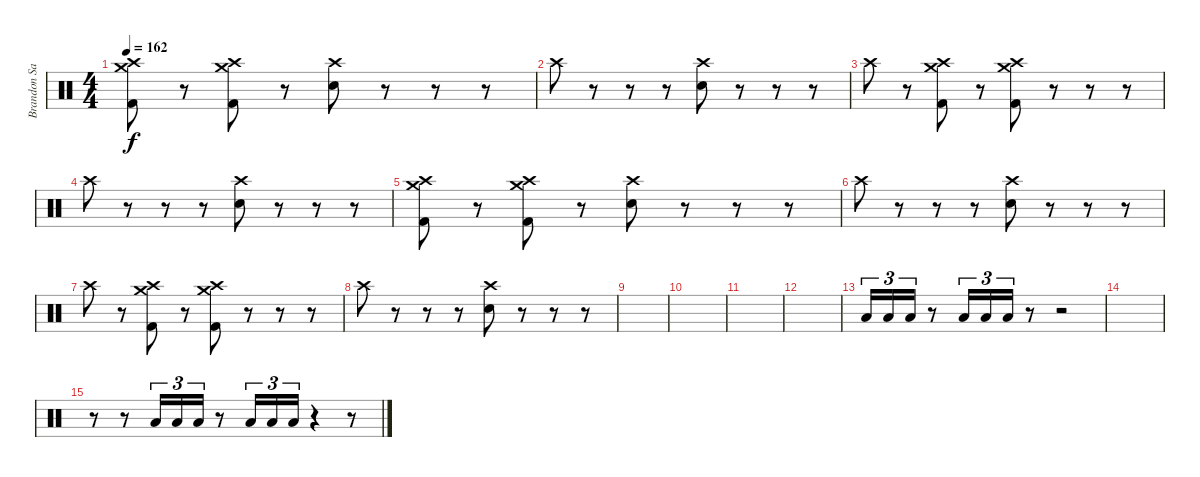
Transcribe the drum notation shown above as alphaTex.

\track ("Brandon Saller" "Brandon Sa") {instrument percussion}
\staff {score}
\articulation defaults
\ts (4 4)
\tempo 162
\clef neutral
\ks c
("Crash high (hit)" "Crash medium (hit)" "Kick (hit) 2").8{dy f} r.8 ("Crash high (hit)" "Crash medium (hit)" "Kick (hit) 2").8 r.8 ("Crash high (hit)" "Electric Snare (hit)").8 r.8 r.8 r.8 |
"Crash high (hit)".8 r.8 r.8 r.8 ("Crash high (hit)" "Electric Snare (hit)").8 r.8 r.8 r.8 |
"Crash high (hit)".8 r.8 ("Crash high (hit)" "Crash medium (hit)" "Kick (hit) 2").8 r.8 ("Crash high (hit)" "Crash medium (hit)" "Kick (hit) 2").8 r.8 r.8 r.8 |
"Crash high (hit)".8 r.8 r.8 r.8 ("Crash high (hit)" "Electric Snare (hit)").8 r.8 r.8 r.8 |
("Crash high (hit)" "Crash medium (hit)" "Kick (hit) 2").8 r.8 ("Crash high (hit)" "Crash medium (hit)" "Kick (hit) 2").8 r.8 ("Crash high (hit)" "Electric Snare (hit)").8 r.8 r.8 r.8 |
"Crash high (hit)".8 r.8 r.8 r.8 ("Crash high (hit)" "Electric Snare (hit)").8 r.8 r.8 r.8 |
"Crash high (hit)".8 r.8 ("Crash high (hit)" "Crash medium (hit)" "Kick (hit) 2").8 r.8 ("Crash high (hit)" "Crash medium (hit)" "Kick (hit) 2").8 r.8 r.8 r.8 |
"Crash high (hit)".8 r.8 r.8 r.8 ("Crash high (hit)" "Electric Snare (hit)").8 r.8 r.8 r.8 |
|
|
|
|
"Low Floor Tom (hit)".16{tu (3 2)} "Low Floor Tom (hit)".16{tu (3 2)} "Low Floor Tom (hit)".16{tu (3 2)} r.8 "Low Floor Tom (hit)".16{tu (3 2)} "Low Floor Tom (hit)".16{tu (3 2)} "Low Floor Tom (hit)".16{tu (3 2)} r.8 r.2 |
|
r.8 r.8 "Low Floor Tom (hit)".16{tu (3 2)} "Low Floor Tom (hit)".16{tu (3 2)} "Low Floor Tom (hit)".16{tu (3 2)} r.8 "Low Floor Tom (hit)".16{tu (3 2)} "Low Floor Tom (hit)".16{tu (3 2)} "Low Floor Tom (hit)".16{tu (3 2)} r.4 r.8
